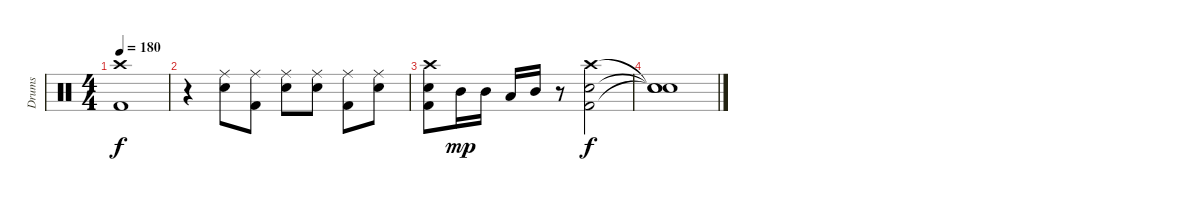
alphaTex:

\track ("Drums" "Drums") {instrument percussion}
\staff {score}
\articulation defaults
\ts (4 4)
\tempo 180
\clef neutral
\ks c
("Crash high (hit)" "Kick (hit) 2").1{dy f} |
r.4 ("Ride (middle)" "Snare (hit) 2").8 ("Ride (middle)" "Kick (hit) 2").8 ("Ride (middle)" "Snare (hit) 2").8 ("Ride (middle)" "Snare (hit) 2").8 ("Ride (middle)" "Kick (hit) 2").8 ("Ride (middle)" "Snare (hit) 2").8 |
("Crash high (hit)" "Snare (hit) 2" "Kick (hit) 2").8 "Mid Tom (hit)".16{dy mp} "Mid Tom (hit)".16 "Low Tom (hit)".16 "Mid Tom (hit)".16 r.8 ("Crash high (hit)" "Snare (hit) 2" "Kick (hit) 2").2{dy f} |
("Snare (hit)"{t} "Snare (hit)"{t} "Snare (hit)"{t}).1
